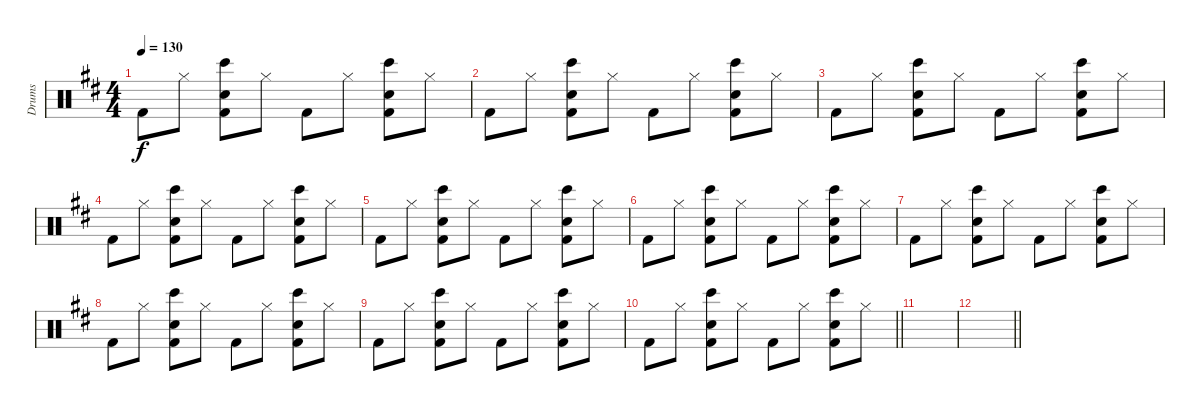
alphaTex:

\track ("Drums" "Drums") {instrument percussion}
\staff {score}
\articulation defaults
\ts (4 4)
\tempo 130
\clef neutral
\ks d "Kick (hit) 2".8{dy f} "Hi-Hat (closed)".8
("Electric Snare (hit)" "Bongo High (hit)" "Kick (hit) 2").8 "Hi-Hat (closed)".8 "Kick (hit) 2".8 "Hi-Hat (closed)".8 ("Electric Snare (hit)" "Bongo High (hit)" "Kick (hit) 2").8 "Hi-Hat (closed)".8 |
"Kick (hit) 2".8 "Hi-Hat (closed)".8 ("Electric Snare (hit)" "Bongo High (hit)" "Kick (hit) 2").8 "Hi-Hat (closed)".8 "Kick (hit) 2".8 "Hi-Hat (closed)".8 ("Electric Snare (hit)" "Bongo High (hit)" "Kick (hit) 2").8 "Hi-Hat (closed)".8 |
"Kick (hit) 2".8 "Hi-Hat (closed)".8 ("Electric Snare (hit)" "Bongo High (hit)" "Kick (hit) 2").8 "Hi-Hat (closed)".8 "Kick (hit) 2".8 "Hi-Hat (closed)".8 ("Electric Snare (hit)" "Bongo High (hit)" "Kick (hit) 2").8 "Hi-Hat (closed)".8 |
"Kick (hit) 2".8 "Hi-Hat (closed)".8 ("Electric Snare (hit)" "Bongo High (hit)" "Kick (hit) 2").8 "Hi-Hat (closed)".8 "Kick (hit) 2".8 "Hi-Hat (closed)".8 ("Electric Snare (hit)" "Bongo High (hit)" "Kick (hit) 2").8 "Hi-Hat (closed)".8 |
"Kick (hit) 2".8 "Hi-Hat (closed)".8 ("Electric Snare (hit)" "Bongo High (hit)" "Kick (hit) 2").8 "Hi-Hat (closed)".8 "Kick (hit) 2".8 "Hi-Hat (closed)".8 ("Electric Snare (hit)" "Bongo High (hit)" "Kick (hit) 2").8 "Hi-Hat (closed)".8 |
"Kick (hit) 2".8 "Hi-Hat (closed)".8 ("Electric Snare (hit)" "Bongo High (hit)" "Kick (hit) 2").8 "Hi-Hat (closed)".8 "Kick (hit) 2".8 "Hi-Hat (closed)".8 ("Electric Snare (hit)" "Bongo High (hit)" "Kick (hit) 2").8 "Hi-Hat (closed)".8 |
"Kick (hit) 2".8 "Hi-Hat (closed)".8 ("Electric Snare (hit)" "Bongo High (hit)" "Kick (hit) 2").8 "Hi-Hat (closed)".8 "Kick (hit) 2".8 "Hi-Hat (closed)".8 ("Electric Snare (hit)" "Bongo High (hit)" "Kick (hit) 2").8 "Hi-Hat (closed)".8 |
"Kick (hit) 2".8 "Hi-Hat (closed)".8 ("Electric Snare (hit)" "Bongo High (hit)" "Kick (hit) 2").8 "Hi-Hat (closed)".8 "Kick (hit) 2".8 "Hi-Hat (closed)".8 ("Electric Snare (hit)" "Bongo High (hit)" "Kick (hit) 2").8 "Hi-Hat (closed)".8 |
"Kick (hit) 2".8 "Hi-Hat (closed)".8 ("Electric Snare (hit)" "Bongo High (hit)" "Kick (hit) 2").8 "Hi-Hat (closed)".8 "Kick (hit) 2".8 "Hi-Hat (closed)".8 ("Electric Snare (hit)" "Bongo High (hit)" "Kick (hit) 2").8 "Hi-Hat (closed)".8 |
\barLineRight lightlight "Kick (hit) 2".8 "Hi-Hat (closed)".8
("Electric Snare (hit)" "Bongo High (hit)" "Kick (hit) 2").8 "Hi-Hat (closed)".8 "Kick (hit) 2".8 "Hi-Hat (closed)".8 ("Electric Snare (hit)" "Bongo High (hit)" "Kick (hit) 2").8 "Hi-Hat (closed)".8 |
|
\barLineRight lightlight
